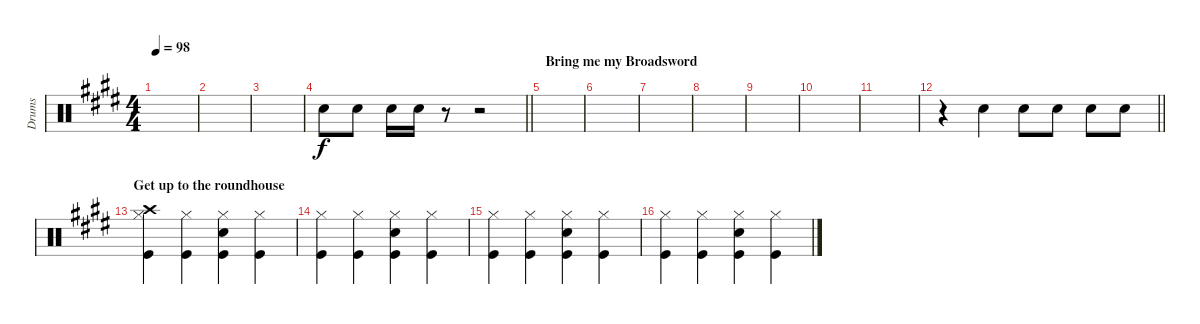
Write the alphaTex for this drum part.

\track ("Drums" "Drums") {instrument percussion}
\staff {score}
\articulation defaults
\ts (4 4)
\tempo 98
\clef neutral
\ks c#minor
|
|
|
\barLineRight lightlight "Snare (hit) 2".8 "Snare (hit) 2".8 "Snare (hit) 2".16 "Snare (hit) 2".16
r.8 r.2 |
\section ("" "Bring me my Broadsword")
|
|
|
|
|
|
|
\barLineRight lightlight
r.4 "Snare (hit) 2".4 "Snare (hit) 2".8 "Snare (hit) 2".8 "Snare (hit) 2".8 "Snare (hit) 2".8 |
\section ("" "Get up to the roundhouse")
("Kick (hit)" "Crash high (hit)" "Hi-Hat (closed)").4 ("Kick (hit)" "Hi-Hat (closed)").4 ("Kick (hit)" "Snare (hit) 2" "Hi-Hat (closed)").4 ("Kick (hit)" "Hi-Hat (closed)").4 |
("Kick (hit)" "Hi-Hat (closed)").4 ("Kick (hit)" "Hi-Hat (closed)").4 ("Kick (hit)" "Snare (hit) 2" "Hi-Hat (closed)").4 ("Kick (hit)" "Hi-Hat (closed)").4 |
("Kick (hit)" "Hi-Hat (closed)").4 ("Kick (hit)" "Hi-Hat (closed)").4 ("Kick (hit)" "Snare (hit) 2" "Hi-Hat (closed)").4 ("Kick (hit)" "Hi-Hat (closed)").4 |
("Kick (hit)" "Hi-Hat (closed)").4 ("Kick (hit)" "Hi-Hat (closed)").4 ("Kick (hit)" "Snare (hit) 2" "Hi-Hat (closed)").4 ("Kick (hit)" "Hi-Hat (closed)").4
